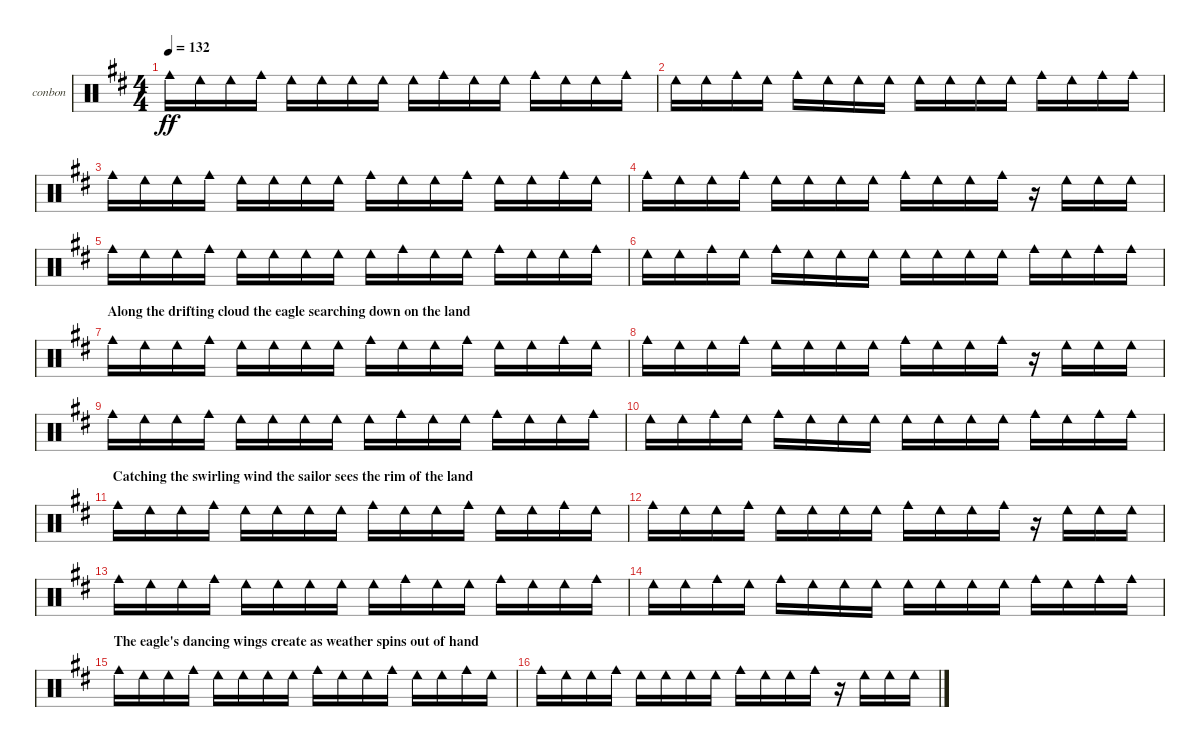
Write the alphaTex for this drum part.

\bracketExtendMode groupsimilarinstruments
\firstSystemTrackNameOrientation horizontal
\otherSystemsTrackNameOrientation horizontal
\track ("Bongos N Congas" "conbon") {instrument percussion}
\staff {score}
\articulation defaults
\ts (4 4)
\tempo 132
\clef neutral
\ks bminor "Cowbell medium (hit)".16{dy ff} "Cowbell low (hit)".16 "Cowbell low (hit)".16 "Cowbell medium (hit)".16 "Cowbell low (hit)".16 "Cowbell low (hit)".16 "Cowbell low (hit)".16 "Cowbell low (hit)".16 "Cowbell low (hit)".16 "Cowbell medium (hit)".16 "Cowbell low (hit)".16 "Cowbell low (hit)".16 "Cowbell medium (hit)".16 "Cowbell low (hit)".16 "Cowbell low (hit)".16 "Cowbell medium (hit)".16
|
"Cowbell low (hit)".16 "Cowbell low (hit)".16 "Cowbell medium (hit)".16 "Cowbell low (hit)".16 "Cowbell medium (hit)".16 "Cowbell low (hit)".16 "Cowbell low (hit)".16 "Cowbell low (hit)".16 "Cowbell low (hit)".16 "Cowbell low (hit)".16 "Cowbell low (hit)".16 "Cowbell low (hit)".16 "Cowbell medium (hit)".16 "Cowbell low (hit)".16 "Cowbell medium (hit)".16 "Cowbell medium (hit)".16 |
"Cowbell medium (hit)".16 "Cowbell low (hit)".16 "Cowbell low (hit)".16 "Cowbell medium (hit)".16 "Cowbell low (hit)".16 "Cowbell low (hit)".16 "Cowbell low (hit)".16 "Cowbell low (hit)".16 "Cowbell medium (hit)".16 "Cowbell low (hit)".16 "Cowbell low (hit)".16 "Cowbell medium (hit)".16 "Cowbell low (hit)".16 "Cowbell low (hit)".16 "Cowbell medium (hit)".16 "Cowbell low (hit)".16 |
"Cowbell medium (hit)".16 "Cowbell low (hit)".16 "Cowbell low (hit)".16 "Cowbell medium (hit)".16 "Cowbell low (hit)".16 "Cowbell low (hit)".16 "Cowbell low (hit)".16 "Cowbell low (hit)".16 "Cowbell medium (hit)".16 "Cowbell low (hit)".16 "Cowbell low (hit)".16 "Cowbell medium (hit)".16 r.16 "Cowbell low (hit)".16 "Cowbell low (hit)".16 "Cowbell low (hit)".16 |
"Cowbell medium (hit)".16 "Cowbell low (hit)".16 "Cowbell low (hit)".16 "Cowbell medium (hit)".16 "Cowbell low (hit)".16 "Cowbell low (hit)".16 "Cowbell low (hit)".16 "Cowbell low (hit)".16 "Cowbell low (hit)".16 "Cowbell medium (hit)".16 "Cowbell low (hit)".16 "Cowbell low (hit)".16 "Cowbell medium (hit)".16 "Cowbell low (hit)".16 "Cowbell low (hit)".16 "Cowbell medium (hit)".16 |
"Cowbell low (hit)".16 "Cowbell low (hit)".16 "Cowbell medium (hit)".16 "Cowbell low (hit)".16 "Cowbell medium (hit)".16 "Cowbell low (hit)".16 "Cowbell low (hit)".16 "Cowbell low (hit)".16 "Cowbell low (hit)".16 "Cowbell low (hit)".16 "Cowbell low (hit)".16 "Cowbell low (hit)".16 "Cowbell medium (hit)".16 "Cowbell low (hit)".16 "Cowbell medium (hit)".16 "Cowbell medium (hit)".16 |
\section ("" "Along the drifting cloud the eagle searching down on the land")
"Cowbell medium (hit)".16 "Cowbell low (hit)".16 "Cowbell low (hit)".16 "Cowbell medium (hit)".16 "Cowbell low (hit)".16 "Cowbell low (hit)".16 "Cowbell low (hit)".16 "Cowbell low (hit)".16 "Cowbell medium (hit)".16 "Cowbell low (hit)".16 "Cowbell low (hit)".16 "Cowbell medium (hit)".16 "Cowbell low (hit)".16 "Cowbell low (hit)".16 "Cowbell medium (hit)".16 "Cowbell low (hit)".16 |
"Cowbell medium (hit)".16 "Cowbell low (hit)".16 "Cowbell low (hit)".16 "Cowbell medium (hit)".16 "Cowbell low (hit)".16 "Cowbell low (hit)".16 "Cowbell low (hit)".16 "Cowbell low (hit)".16 "Cowbell medium (hit)".16 "Cowbell low (hit)".16 "Cowbell low (hit)".16 "Cowbell medium (hit)".16 r.16 "Cowbell low (hit)".16 "Cowbell low (hit)".16 "Cowbell low (hit)".16 |
"Cowbell medium (hit)".16 "Cowbell low (hit)".16 "Cowbell low (hit)".16 "Cowbell medium (hit)".16 "Cowbell low (hit)".16 "Cowbell low (hit)".16 "Cowbell low (hit)".16 "Cowbell low (hit)".16 "Cowbell low (hit)".16 "Cowbell medium (hit)".16 "Cowbell low (hit)".16 "Cowbell low (hit)".16 "Cowbell medium (hit)".16 "Cowbell low (hit)".16 "Cowbell low (hit)".16 "Cowbell medium (hit)".16 |
"Cowbell low (hit)".16 "Cowbell low (hit)".16 "Cowbell medium (hit)".16 "Cowbell low (hit)".16 "Cowbell medium (hit)".16 "Cowbell low (hit)".16 "Cowbell low (hit)".16 "Cowbell low (hit)".16 "Cowbell low (hit)".16 "Cowbell low (hit)".16 "Cowbell low (hit)".16 "Cowbell low (hit)".16 "Cowbell medium (hit)".16 "Cowbell low (hit)".16 "Cowbell medium (hit)".16 "Cowbell medium (hit)".16 |
\section ("" "Catching the swirling wind the sailor sees the rim of the land")
"Cowbell medium (hit)".16 "Cowbell low (hit)".16 "Cowbell low (hit)".16 "Cowbell medium (hit)".16 "Cowbell low (hit)".16 "Cowbell low (hit)".16 "Cowbell low (hit)".16 "Cowbell low (hit)".16 "Cowbell medium (hit)".16 "Cowbell low (hit)".16 "Cowbell low (hit)".16 "Cowbell medium (hit)".16 "Cowbell low (hit)".16 "Cowbell low (hit)".16 "Cowbell medium (hit)".16 "Cowbell low (hit)".16 |
"Cowbell medium (hit)".16 "Cowbell low (hit)".16 "Cowbell low (hit)".16 "Cowbell medium (hit)".16 "Cowbell low (hit)".16 "Cowbell low (hit)".16 "Cowbell low (hit)".16 "Cowbell low (hit)".16 "Cowbell medium (hit)".16 "Cowbell low (hit)".16 "Cowbell low (hit)".16 "Cowbell medium (hit)".16 r.16 "Cowbell low (hit)".16 "Cowbell low (hit)".16 "Cowbell low (hit)".16 |
"Cowbell medium (hit)".16 "Cowbell low (hit)".16 "Cowbell low (hit)".16 "Cowbell medium (hit)".16 "Cowbell low (hit)".16 "Cowbell low (hit)".16 "Cowbell low (hit)".16 "Cowbell low (hit)".16 "Cowbell low (hit)".16 "Cowbell medium (hit)".16 "Cowbell low (hit)".16 "Cowbell low (hit)".16 "Cowbell medium (hit)".16 "Cowbell low (hit)".16 "Cowbell low (hit)".16 "Cowbell medium (hit)".16 |
"Cowbell low (hit)".16 "Cowbell low (hit)".16 "Cowbell medium (hit)".16 "Cowbell low (hit)".16 "Cowbell medium (hit)".16 "Cowbell low (hit)".16 "Cowbell low (hit)".16 "Cowbell low (hit)".16 "Cowbell low (hit)".16 "Cowbell low (hit)".16 "Cowbell low (hit)".16 "Cowbell low (hit)".16 "Cowbell medium (hit)".16 "Cowbell low (hit)".16 "Cowbell medium (hit)".16 "Cowbell medium (hit)".16 |
\section ("" "The eagle's dancing wings create as weather spins out of hand")
"Cowbell medium (hit)".16 "Cowbell low (hit)".16 "Cowbell low (hit)".16 "Cowbell medium (hit)".16 "Cowbell low (hit)".16 "Cowbell low (hit)".16 "Cowbell low (hit)".16 "Cowbell low (hit)".16 "Cowbell medium (hit)".16 "Cowbell low (hit)".16 "Cowbell low (hit)".16 "Cowbell medium (hit)".16 "Cowbell low (hit)".16 "Cowbell low (hit)".16 "Cowbell medium (hit)".16 "Cowbell low (hit)".16 |
"Cowbell medium (hit)".16 "Cowbell low (hit)".16 "Cowbell low (hit)".16 "Cowbell medium (hit)".16 "Cowbell low (hit)".16 "Cowbell low (hit)".16 "Cowbell low (hit)".16 "Cowbell low (hit)".16 "Cowbell medium (hit)".16 "Cowbell low (hit)".16 "Cowbell low (hit)".16 "Cowbell medium (hit)".16 r.16 "Cowbell low (hit)".16 "Cowbell low (hit)".16 "Cowbell low (hit)".16
